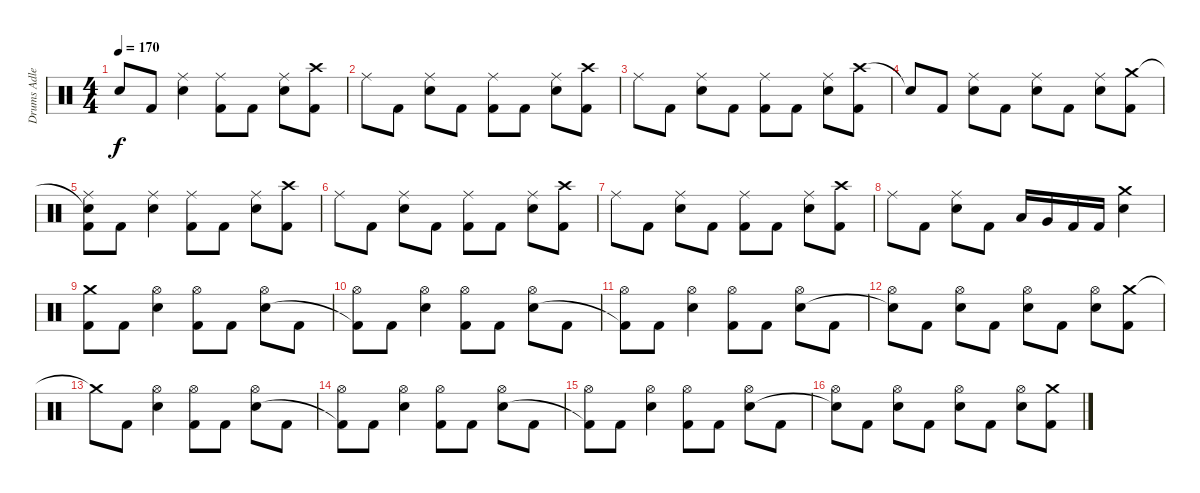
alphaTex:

\track ("Drums Adler" "Drums Adle") {instrument percussion}
\staff {score}
\articulation defaults
\ts (4 4)
\tempo 170
\clef neutral
\ks c "Snare (hit)"{t}.8{dy f} "Kick (hit) 2".8
("Ride (middle)" "Snare (hit) 2").4 ("Ride (middle)" "Kick (hit) 2").8 "Kick (hit) 2".8 ("Ride (middle)" "Snare (hit) 2").8 ("Crash high (hit)" "Kick (hit) 2").8 |
"Ride (middle)".8 "Kick (hit) 2".8 ("Ride (middle)" "Snare (hit) 2").8 "Kick (hit) 2".8 ("Ride (middle)" "Kick (hit) 2").8 "Kick (hit) 2".8 ("Ride (middle)" "Snare (hit) 2").8 ("Crash high (hit)" "Kick (hit) 2").8 |
"Ride (middle)".8 "Kick (hit) 2".8 ("Ride (middle)" "Snare (hit) 2").8 "Kick (hit) 2".8 ("Ride (middle)" "Kick (hit) 2").8 "Kick (hit) 2".8 ("Ride (middle)" "Snare (hit) 2").8 ("Crash high (hit)" "Kick (hit) 2").8 |
"Snare (hit)"{t}.8 "Kick (hit) 2".8 ("Ride (middle)" "Snare (hit) 2").8 "Kick (hit) 2".8 ("Ride (middle)" "Snare (hit) 2").8 "Kick (hit) 2".8 ("Ride (middle)" "Snare (hit) 2").8 ("Crash medium (hit)" "Kick (hit) 2").8 |
("Snare (hit)"{t} "Ride (middle)" "Kick (hit) 2").8 "Kick (hit) 2".8 ("Ride (middle)" "Snare (hit) 2").4 ("Ride (middle)" "Kick (hit) 2").8 "Kick (hit) 2".8 ("Ride (middle)" "Snare (hit) 2").8 ("Crash high (hit)" "Kick (hit) 2").8 |
"Ride (middle)".8 "Kick (hit) 2".8 ("Ride (middle)" "Snare (hit) 2").8 "Kick (hit) 2".8 ("Ride (middle)" "Kick (hit) 2").8 "Kick (hit) 2".8 ("Ride (middle)" "Snare (hit) 2").8 ("Crash high (hit)" "Kick (hit) 2").8 |
"Ride (middle)".8 "Kick (hit) 2".8 ("Ride (middle)" "Snare (hit) 2").8 "Kick (hit) 2".8 ("Ride (middle)" "Kick (hit) 2").8 "Kick (hit) 2".8 ("Ride (middle)" "Snare (hit) 2").8 ("Crash high (hit)" "Kick (hit) 2").8 |
"Ride (middle)".8 "Kick (hit) 2".8 ("Ride (middle)" "Snare (hit) 2").8 "Kick (hit) 2".8 "Low Tom (hit)".16 "Very Low Tom (hit)".16 "Kick (hit) 2".16 "Kick (hit) 2".16 ("Crash medium (hit)" "Snare (hit) 2").4 |
("Crash medium (hit)" "Kick (hit) 2").8 "Kick (hit) 2".8 ("Hi-Hat (open)" "Snare (hit) 2").4 ("Hi-Hat (open)" "Kick (hit) 2").8 "Kick (hit) 2".8 ("Hi-Hat (open)" "Snare (hit) 2").8 "Kick (hit) 2".8 |
("Hi-Hat (open)" "Kick (hit) 2"{t}).8 "Kick (hit) 2".8 ("Hi-Hat (open)" "Snare (hit) 2").4 ("Hi-Hat (open)" "Kick (hit) 2").8 "Kick (hit) 2".8 ("Hi-Hat (open)" "Snare (hit) 2").8 "Kick (hit) 2".8 |
("Hi-Hat (open)" "Kick (hit) 2"{t}).8 "Kick (hit) 2".8 ("Hi-Hat (open)" "Snare (hit) 2").4 ("Hi-Hat (open)" "Kick (hit) 2").8 "Kick (hit) 2".8 ("Hi-Hat (open)" "Snare (hit) 2").8 "Kick (hit) 2".8 |
("Hi-Hat (open)" "Snare (hit)"{t}).8 "Kick (hit) 2".8 ("Hi-Hat (open)" "Snare (hit) 2").8 "Kick (hit) 2".8 ("Hi-Hat (open)" "Snare (hit) 2").8 "Kick (hit) 2".8 ("Hi-Hat (open)" "Snare (hit) 2").8 ("Crash medium (hit)" "Kick (hit) 2").8 |
"Crash medium (hit)"{t}.8 "Kick (hit) 2".8 ("Hi-Hat (open)" "Snare (hit) 2").4 ("Hi-Hat (open)" "Kick (hit) 2").8 "Kick (hit) 2".8 ("Hi-Hat (open)" "Snare (hit) 2").8 "Kick (hit) 2".8 |
("Hi-Hat (open)" "Kick (hit) 2"{t}).8 "Kick (hit) 2".8 ("Hi-Hat (open)" "Snare (hit) 2").4 ("Hi-Hat (open)" "Kick (hit) 2").8 "Kick (hit) 2".8 ("Hi-Hat (open)" "Snare (hit) 2").8 "Kick (hit) 2".8 |
("Hi-Hat (open)" "Kick (hit) 2"{t}).8 "Kick (hit) 2".8 ("Hi-Hat (open)" "Snare (hit) 2").4 ("Hi-Hat (open)" "Kick (hit) 2").8 "Kick (hit) 2".8 ("Hi-Hat (open)" "Snare (hit) 2").8 "Kick (hit) 2".8 |
("Hi-Hat (open)" "Snare (hit)"{t}).8 "Kick (hit) 2".8 ("Hi-Hat (open)" "Snare (hit) 2").8 "Kick (hit) 2".8 ("Hi-Hat (open)" "Snare (hit) 2").8 "Kick (hit) 2".8 ("Hi-Hat (open)" "Snare (hit) 2").8 ("Crash medium (hit)" "Kick (hit) 2").8
